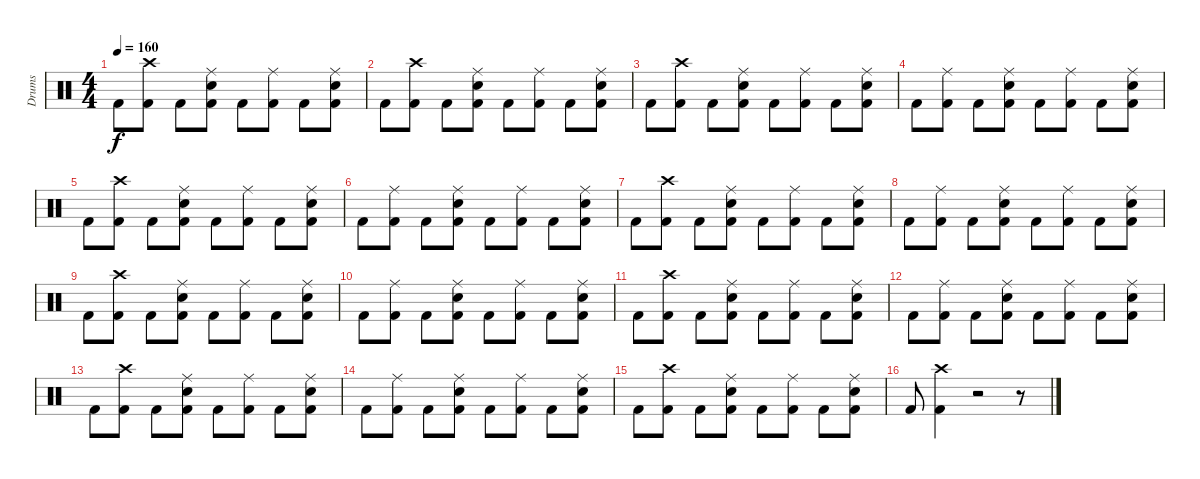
\track ("Drums" "Drums") {instrument percussion}
\staff {score}
\articulation defaults
\ts (4 4)
\tempo 160
\clef neutral
\ks c "Kick (hit) 2".8{dy f}
("Kick (hit) 2" "Crash high (hit)").8 "Kick (hit) 2".8 ("Snare (hit) 2" "Kick (hit) 2" "Ride (middle)").8 "Kick (hit) 2".8 ("Kick (hit) 2" "Ride (middle)").8 "Kick (hit) 2".8 ("Snare (hit) 2" "Kick (hit) 2" "Ride (middle)").8 |
"Kick (hit) 2".8 ("Kick (hit) 2" "Crash high (hit)").8 "Kick (hit) 2".8 ("Snare (hit) 2" "Kick (hit) 2" "Ride (middle)").8 "Kick (hit) 2".8 ("Kick (hit) 2" "Ride (middle)").8 "Kick (hit) 2".8 ("Snare (hit) 2" "Kick (hit) 2" "Ride (middle)").8 |
"Kick (hit) 2".8 ("Kick (hit) 2" "Crash high (hit)").8 "Kick (hit) 2".8 ("Snare (hit) 2" "Kick (hit) 2" "Ride (middle)").8 "Kick (hit) 2".8 ("Kick (hit) 2" "Ride (middle)").8 "Kick (hit) 2".8 ("Snare (hit) 2" "Kick (hit) 2" "Ride (middle)").8 |
"Kick (hit) 2".8 ("Kick (hit) 2" "Ride (middle)").8 "Kick (hit) 2".8 ("Snare (hit) 2" "Kick (hit) 2" "Ride (middle)").8 "Kick (hit) 2".8 ("Kick (hit) 2" "Ride (middle)").8 "Kick (hit) 2".8 ("Snare (hit) 2" "Kick (hit) 2" "Ride (middle)").8 |
"Kick (hit) 2".8 ("Kick (hit) 2" "Crash high (hit)").8 "Kick (hit) 2".8 ("Snare (hit) 2" "Kick (hit) 2" "Ride (middle)").8 "Kick (hit) 2".8 ("Kick (hit) 2" "Ride (middle)").8 "Kick (hit) 2".8 ("Snare (hit) 2" "Kick (hit) 2" "Ride (middle)").8 |
"Kick (hit) 2".8 ("Kick (hit) 2" "Ride (middle)").8 "Kick (hit) 2".8 ("Snare (hit) 2" "Kick (hit) 2" "Ride (middle)").8 "Kick (hit) 2".8 ("Kick (hit) 2" "Ride (middle)").8 "Kick (hit) 2".8 ("Snare (hit) 2" "Kick (hit) 2" "Ride (middle)").8 |
"Kick (hit) 2".8 ("Kick (hit) 2" "Crash high (hit)").8 "Kick (hit) 2".8 ("Snare (hit) 2" "Kick (hit) 2" "Ride (middle)").8 "Kick (hit) 2".8 ("Kick (hit) 2" "Ride (middle)").8 "Kick (hit) 2".8 ("Snare (hit) 2" "Kick (hit) 2" "Ride (middle)").8 |
"Kick (hit) 2".8 ("Kick (hit) 2" "Ride (middle)").8 "Kick (hit) 2".8 ("Snare (hit) 2" "Kick (hit) 2" "Ride (middle)").8 "Kick (hit) 2".8 ("Kick (hit) 2" "Ride (middle)").8 "Kick (hit) 2".8 ("Snare (hit) 2" "Kick (hit) 2" "Ride (middle)").8 |
"Kick (hit) 2".8 ("Kick (hit) 2" "Crash high (hit)").8 "Kick (hit) 2".8 ("Snare (hit) 2" "Kick (hit) 2" "Ride (middle)").8 "Kick (hit) 2".8 ("Kick (hit) 2" "Ride (middle)").8 "Kick (hit) 2".8 ("Snare (hit) 2" "Kick (hit) 2" "Ride (middle)").8 |
"Kick (hit) 2".8 ("Kick (hit) 2" "Ride (middle)").8 "Kick (hit) 2".8 ("Snare (hit) 2" "Kick (hit) 2" "Ride (middle)").8 "Kick (hit) 2".8 ("Kick (hit) 2" "Ride (middle)").8 "Kick (hit) 2".8 ("Snare (hit) 2" "Kick (hit) 2" "Ride (middle)").8 |
"Kick (hit) 2".8 ("Kick (hit) 2" "Crash high (hit)").8 "Kick (hit) 2".8 ("Snare (hit) 2" "Kick (hit) 2" "Ride (middle)").8 "Kick (hit) 2".8 ("Kick (hit) 2" "Ride (middle)").8 "Kick (hit) 2".8 ("Snare (hit) 2" "Kick (hit) 2" "Ride (middle)").8 |
"Kick (hit) 2".8 ("Kick (hit) 2" "Ride (middle)").8 "Kick (hit) 2".8 ("Snare (hit) 2" "Kick (hit) 2" "Ride (middle)").8 "Kick (hit) 2".8 ("Kick (hit) 2" "Ride (middle)").8 "Kick (hit) 2".8 ("Snare (hit) 2" "Kick (hit) 2" "Ride (middle)").8 |
"Kick (hit) 2".8 ("Kick (hit) 2" "Crash high (hit)").8 "Kick (hit) 2".8 ("Snare (hit) 2" "Kick (hit) 2" "Ride (middle)").8 "Kick (hit) 2".8 ("Kick (hit) 2" "Ride (middle)").8 "Kick (hit) 2".8 ("Snare (hit) 2" "Kick (hit) 2" "Ride (middle)").8 |
"Kick (hit) 2".8 ("Kick (hit) 2" "Ride (middle)").8 "Kick (hit) 2".8 ("Snare (hit) 2" "Kick (hit) 2" "Ride (middle)").8 "Kick (hit) 2".8 ("Kick (hit) 2" "Ride (middle)").8 "Kick (hit) 2".8 ("Snare (hit) 2" "Kick (hit) 2" "Ride (middle)").8 |
"Kick (hit) 2".8 ("Kick (hit) 2" "Crash high (hit)").8 "Kick (hit) 2".8 ("Snare (hit) 2" "Kick (hit) 2" "Ride (middle)").8 "Kick (hit) 2".8 ("Kick (hit) 2" "Ride (middle)").8 "Kick (hit) 2".8 ("Snare (hit) 2" "Kick (hit) 2" "Ride (middle)").8 |
"Kick (hit) 2".8 ("Kick (hit) 2" "Crash high (hit)").4 r.2 r.8
